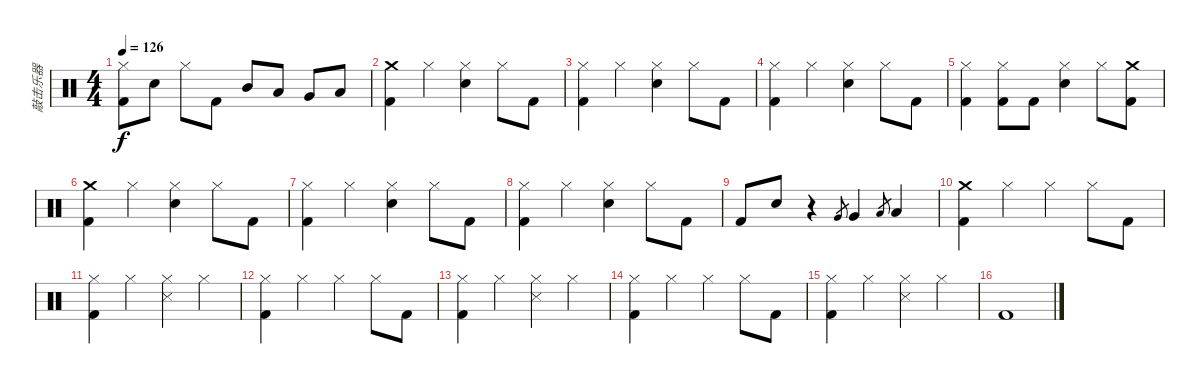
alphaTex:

\track ("敲击乐器" "敲击乐器") {instrument percussion}
\staff {score}
\articulation defaults
\ts (4 4)
\tempo 126
\clef neutral
\ks c
("Hi-Hat (closed)" "Kick (hit) 2").8{dy f} "Electric Snare (hit)".8 "Hi-Hat (closed)".8 "Kick (hit) 2".8 "Mid Tom (hit)".8 "Low Tom (hit)".8 "Very Low Tom (hit)".8 "Low Floor Tom (hit)".8 |
("Crash medium (hit)" "Kick (hit) 2").4 "Hi-Hat (closed)".4 ("Hi-Hat (closed)" "Electric Snare (hit)").4 "Hi-Hat (closed)".8 "Kick (hit) 2".8 |
("Hi-Hat (closed)" "Kick (hit) 2").4 "Hi-Hat (closed)".4 ("Hi-Hat (closed)" "Electric Snare (hit)").4 "Hi-Hat (closed)".8 "Kick (hit) 2".8 |
("Hi-Hat (closed)" "Kick (hit) 2").4 "Hi-Hat (closed)".4 ("Hi-Hat (closed)" "Electric Snare (hit)").4 "Hi-Hat (closed)".8 "Kick (hit) 2".8 |
("Hi-Hat (closed)" "Kick (hit) 2").4 ("Hi-Hat (closed)" "Kick (hit) 2").8 "Kick (hit) 2".8 ("Hi-Hat (closed)" "Electric Snare (hit)").4 "Hi-Hat (closed)".8 ("Crash medium (hit)" "Kick (hit) 2").8 |
("Crash medium (hit)" "Kick (hit) 2").4 "Hi-Hat (closed)".4 ("Hi-Hat (closed)" "Electric Snare (hit)").4 "Hi-Hat (closed)".8 "Kick (hit) 2".8 |
("Hi-Hat (closed)" "Kick (hit) 2").4 "Hi-Hat (closed)".4 ("Hi-Hat (closed)" "Electric Snare (hit)").4 "Hi-Hat (closed)".8 "Kick (hit) 2".8 |
("Hi-Hat (closed)" "Kick (hit) 2").4 "Hi-Hat (closed)".4 ("Hi-Hat (closed)" "Electric Snare (hit)").4 "Hi-Hat (closed)".8 "Kick (hit) 2".8 |
"Kick (hit) 2".8 "Electric Snare (hit)".8 r.4 "Very Low Tom (hit)".8{gr} "Very Low Tom (hit)".4 "Low Floor Tom (hit)".8{gr} "Low Floor Tom (hit)".4 |
("Crash medium (hit)" "Kick (hit) 2").4 "Hi-Hat (closed)".4 "Hi-Hat (closed)".4 "Hi-Hat (closed)".8 "Kick (hit) 2".8 |
("Hi-Hat (closed)" "Kick (hit) 2").4 "Hi-Hat (closed)".4 ("Hi-Hat (closed)" "Snare (side stick) 3").4 "Hi-Hat (closed)".4 |
("Hi-Hat (closed)" "Kick (hit) 2").4 "Hi-Hat (closed)".4 "Hi-Hat (closed)".4 "Hi-Hat (closed)".8 "Kick (hit) 2".8 |
("Hi-Hat (closed)" "Kick (hit) 2").4 "Hi-Hat (closed)".4 ("Hi-Hat (closed)" "Snare (side stick) 3").4 "Hi-Hat (closed)".4 |
("Hi-Hat (closed)" "Kick (hit) 2").4 "Hi-Hat (closed)".4 "Hi-Hat (closed)".4 "Hi-Hat (closed)".8 "Kick (hit) 2".8 |
("Hi-Hat (closed)" "Kick (hit) 2").4 "Hi-Hat (closed)".4 ("Hi-Hat (closed)" "Snare (side stick) 3").4 "Hi-Hat (closed)".4 |
"Kick (hit) 2".1
